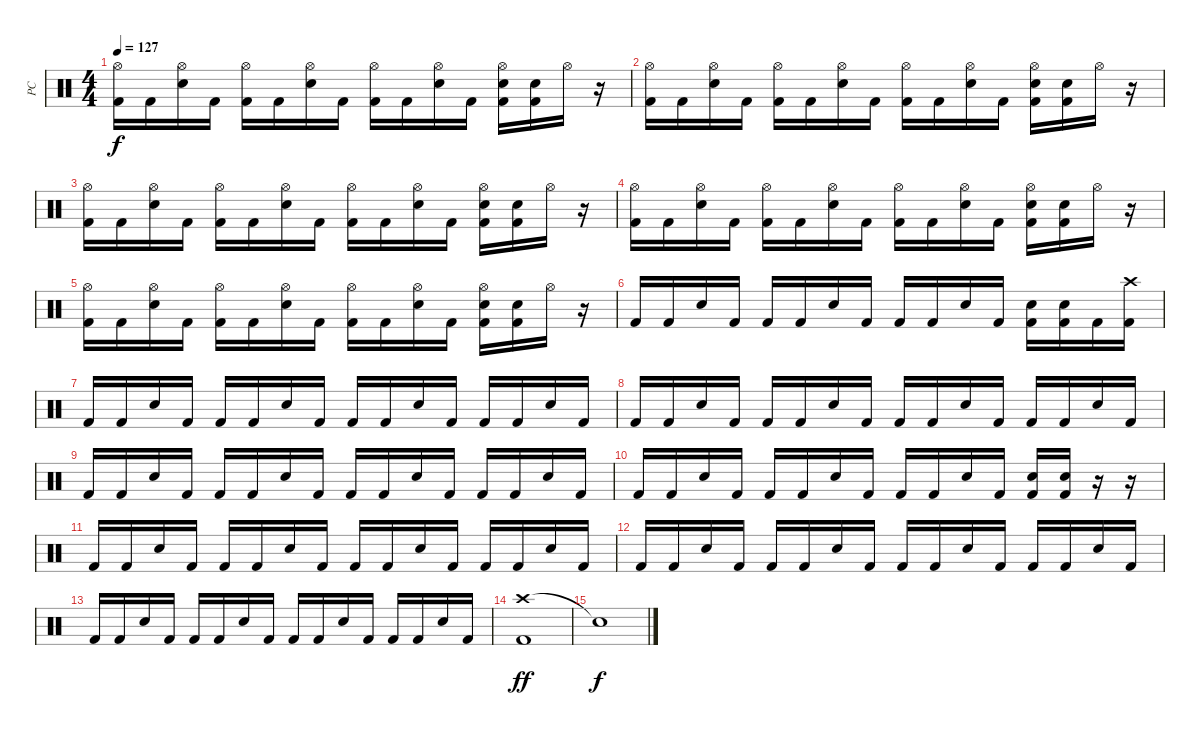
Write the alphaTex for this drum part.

\track ("PC" "PC") {instrument percussion}
\staff {score}
\articulation defaults
\ts (4 4)
\tempo 127
\clef neutral
\ks c
("Hi-Hat (open)" "Kick (hit) 2").16{dy f} "Kick (hit) 2".16 ("Hi-Hat (open)" "Snare (hit) 2").16 "Kick (hit) 2".16 ("Hi-Hat (open)" "Kick (hit) 2").16 "Kick (hit) 2".16 ("Hi-Hat (open)" "Snare (hit) 2").16 "Kick (hit) 2".16 ("Hi-Hat (open)" "Kick (hit) 2").16 "Kick (hit) 2".16 ("Hi-Hat (open)" "Snare (hit) 2").16 "Kick (hit) 2".16 ("Hi-Hat (open)" "Snare (hit) 2" "Kick (hit) 2").16 ("Snare (hit) 2" "Kick (hit) 2").16 "Hi-Hat (open)".16 r.16 |
("Hi-Hat (open)" "Kick (hit) 2").16 "Kick (hit) 2".16 ("Hi-Hat (open)" "Snare (hit) 2").16 "Kick (hit) 2".16 ("Hi-Hat (open)" "Kick (hit) 2").16 "Kick (hit) 2".16 ("Hi-Hat (open)" "Snare (hit) 2").16 "Kick (hit) 2".16 ("Hi-Hat (open)" "Kick (hit) 2").16 "Kick (hit) 2".16 ("Hi-Hat (open)" "Snare (hit) 2").16 "Kick (hit) 2".16 ("Hi-Hat (open)" "Snare (hit) 2" "Kick (hit) 2").16 ("Snare (hit) 2" "Kick (hit) 2").16 "Hi-Hat (open)".16 r.16 |
("Hi-Hat (open)" "Kick (hit) 2").16 "Kick (hit) 2".16 ("Hi-Hat (open)" "Snare (hit) 2").16 "Kick (hit) 2".16 ("Hi-Hat (open)" "Kick (hit) 2").16 "Kick (hit) 2".16 ("Hi-Hat (open)" "Snare (hit) 2").16 "Kick (hit) 2".16 ("Hi-Hat (open)" "Kick (hit) 2").16 "Kick (hit) 2".16 ("Hi-Hat (open)" "Snare (hit) 2").16 "Kick (hit) 2".16 ("Hi-Hat (open)" "Snare (hit) 2" "Kick (hit) 2").16 ("Snare (hit) 2" "Kick (hit) 2").16 "Hi-Hat (open)".16 r.16 |
("Hi-Hat (open)" "Kick (hit) 2").16 "Kick (hit) 2".16 ("Hi-Hat (open)" "Snare (hit) 2").16 "Kick (hit) 2".16 ("Hi-Hat (open)" "Kick (hit) 2").16 "Kick (hit) 2".16 ("Hi-Hat (open)" "Snare (hit) 2").16 "Kick (hit) 2".16 ("Hi-Hat (open)" "Kick (hit) 2").16 "Kick (hit) 2".16 ("Hi-Hat (open)" "Snare (hit) 2").16 "Kick (hit) 2".16 ("Hi-Hat (open)" "Snare (hit) 2" "Kick (hit) 2").16 ("Snare (hit) 2" "Kick (hit) 2").16 "Hi-Hat (open)".16 r.16 |
("Hi-Hat (open)" "Kick (hit) 2").16 "Kick (hit) 2".16 ("Hi-Hat (open)" "Snare (hit) 2").16 "Kick (hit) 2".16 ("Hi-Hat (open)" "Kick (hit) 2").16 "Kick (hit) 2".16 ("Hi-Hat (open)" "Snare (hit) 2").16 "Kick (hit) 2".16 ("Hi-Hat (open)" "Kick (hit) 2").16 "Kick (hit) 2".16 ("Hi-Hat (open)" "Snare (hit) 2").16 "Kick (hit) 2".16 ("Hi-Hat (open)" "Snare (hit) 2" "Kick (hit) 2").16 ("Snare (hit) 2" "Kick (hit) 2").16 "Hi-Hat (open)".16 r.16 |
"Kick (hit) 2".16 "Kick (hit) 2".16 "Snare (hit) 2".16 "Kick (hit) 2".16 "Kick (hit) 2".16 "Kick (hit) 2".16 "Snare (hit) 2".16 "Kick (hit) 2".16 "Kick (hit) 2".16 "Kick (hit) 2".16 "Snare (hit) 2".16 "Kick (hit) 2".16 ("Snare (hit) 2" "Kick (hit) 2").16 ("Snare (hit) 2" "Kick (hit) 2").16 "Kick (hit) 2".16 ("Crash high (hit)" "Kick (hit) 2").16 |
"Kick (hit) 2".16 "Kick (hit) 2".16 "Snare (hit) 2".16 "Kick (hit) 2".16 "Kick (hit) 2".16 "Kick (hit) 2".16 "Snare (hit) 2".16 "Kick (hit) 2".16 "Kick (hit) 2".16 "Kick (hit) 2".16 "Snare (hit) 2".16 "Kick (hit) 2".16 "Kick (hit) 2".16 "Kick (hit) 2".16 "Snare (hit) 2".16 "Kick (hit) 2".16 |
"Kick (hit) 2".16 "Kick (hit) 2".16 "Snare (hit) 2".16 "Kick (hit) 2".16 "Kick (hit) 2".16 "Kick (hit) 2".16 "Snare (hit) 2".16 "Kick (hit) 2".16 "Kick (hit) 2".16 "Kick (hit) 2".16 "Snare (hit) 2".16 "Kick (hit) 2".16 "Kick (hit) 2".16 "Kick (hit) 2".16 "Snare (hit) 2".16 "Kick (hit) 2".16 |
"Kick (hit) 2".16 "Kick (hit) 2".16 "Snare (hit) 2".16 "Kick (hit) 2".16 "Kick (hit) 2".16 "Kick (hit) 2".16 "Snare (hit) 2".16 "Kick (hit) 2".16 "Kick (hit) 2".16 "Kick (hit) 2".16 "Snare (hit) 2".16 "Kick (hit) 2".16 "Kick (hit) 2".16 "Kick (hit) 2".16 "Snare (hit) 2".16 "Kick (hit) 2".16 |
"Kick (hit) 2".16 "Kick (hit) 2".16 "Snare (hit) 2".16 "Kick (hit) 2".16 "Kick (hit) 2".16 "Kick (hit) 2".16 "Snare (hit) 2".16 "Kick (hit) 2".16 "Kick (hit) 2".16 "Kick (hit) 2".16 "Snare (hit) 2".16 "Kick (hit) 2".16 ("Snare (hit) 2" "Kick (hit) 2").16 ("Snare (hit) 2" "Kick (hit) 2").16 r.16 r.16 |
"Kick (hit) 2".16 "Kick (hit) 2".16 "Snare (hit) 2".16 "Kick (hit) 2".16 "Kick (hit) 2".16 "Kick (hit) 2".16 "Snare (hit) 2".16 "Kick (hit) 2".16 "Kick (hit) 2".16 "Kick (hit) 2".16 "Snare (hit) 2".16 "Kick (hit) 2".16 "Kick (hit) 2".16 "Kick (hit) 2".16 "Snare (hit) 2".16 "Kick (hit) 2".16 |
"Kick (hit) 2".16 "Kick (hit) 2".16 "Snare (hit) 2".16 "Kick (hit) 2".16 "Kick (hit) 2".16 "Kick (hit) 2".16 "Snare (hit) 2".16 "Kick (hit) 2".16 "Kick (hit) 2".16 "Kick (hit) 2".16 "Snare (hit) 2".16 "Kick (hit) 2".16 "Kick (hit) 2".16 "Kick (hit) 2".16 "Snare (hit) 2".16 "Kick (hit) 2".16 |
"Kick (hit) 2".16 "Kick (hit) 2".16 "Snare (hit) 2".16 "Kick (hit) 2".16 "Kick (hit) 2".16 "Kick (hit) 2".16 "Snare (hit) 2".16 "Kick (hit) 2".16 "Kick (hit) 2".16 "Kick (hit) 2".16 "Snare (hit) 2".16 "Kick (hit) 2".16 "Kick (hit) 2".16 "Kick (hit) 2".16 "Snare (hit) 2".16 "Kick (hit) 2".16 |
("Crash high (hit)" "Kick (hit) 2").1{bd 120 dy ff} |
"Snare (hit)"{t}.1{dy f}
